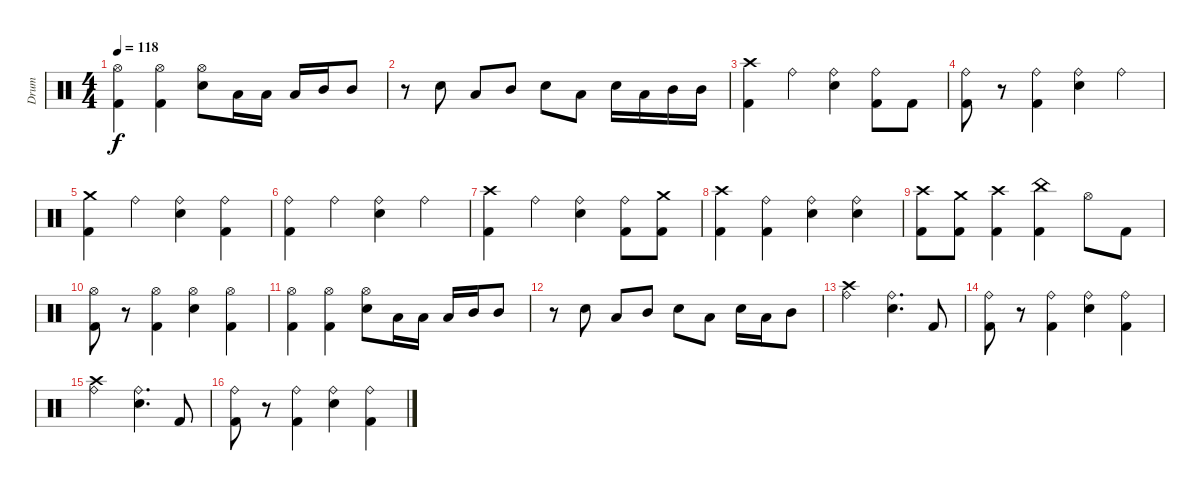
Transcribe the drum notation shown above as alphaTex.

\track ("Drum" "Drum") {instrument percussion}
\staff {score}
\articulation defaults
\ts (4 4)
\tempo 118
\clef neutral
\ks c
("Hi-Hat (open)" "Kick (hit) 2").4{dy f} ("Hi-Hat (open)" "Kick (hit) 2").4 ("Hi-Hat (open)" "Electric Snare (hit)").8 "Low Tom (hit)".16 "Low Tom (hit)".16 "Low Tom (hit)".16 "Mid Tom (hit)".16 "Mid Tom (hit)".8 |
r.8 "Electric Snare (hit)".8 "Low Tom (hit)".8 "Mid Tom (hit)".8 "Electric Snare (hit)".8 "Low Tom (hit)".8 "Electric Snare (hit)".16 "Low Tom (hit)".16 "Mid Tom (hit)".16 "Mid Tom (hit)".16 |
("Crash high (hit)" "Kick (hit) 2").4 "Ride (bell)".4 ("Ride (bell)" "Electric Snare (hit)").4 ("Ride (bell)" "Kick (hit) 2").8 "Kick (hit) 2".8 |
("Ride (bell)" "Kick (hit) 2").8 r.8 ("Ride (bell)" "Kick (hit) 2").4 ("Ride (bell)" "Electric Snare (hit)").4 "Ride (bell)".4 |
("Crash medium (hit)" "Kick (hit) 2").4 "Ride (bell)".4 ("Ride (bell)" "Electric Snare (hit)").4 ("Ride (bell)" "Kick (hit) 2").4 |
("Ride (bell)" "Kick (hit) 2").4 "Ride (bell)".4 ("Ride (bell)" "Electric Snare (hit)").4 "Ride (bell)".4 |
("Crash high (hit)" "Kick (hit) 2").4 "Ride (bell)".4 ("Ride (bell)" "Electric Snare (hit)").4 ("Ride (bell)" "Kick (hit) 2").8 ("Crash medium (hit)" "Kick (hit) 2").8 |
("Crash high (hit)" "Kick (hit) 2").4 ("Ride (bell)" "Kick (hit) 2").4 ("Ride (bell)" "Electric Snare (hit)").4 ("Ride (bell)" "Electric Snare (hit)").4 |
("Crash high (hit)" "Kick (hit) 2").8 ("Crash medium (hit)" "Kick (hit) 2").8 ("Crash high (hit)" "Kick (hit) 2").4 ("China (hit)" "Kick (hit) 2").4 "Hi-Hat (open)".8 "Kick (hit) 2".8 |
("Hi-Hat (open)" "Kick (hit) 2").8 r.8 ("Hi-Hat (open)" "Kick (hit) 2").4 ("Hi-Hat (open)" "Electric Snare (hit)").4 ("Hi-Hat (open)" "Kick (hit) 2").4 |
("Hi-Hat (open)" "Kick (hit) 2").4 ("Hi-Hat (open)" "Kick (hit) 2").4 ("Hi-Hat (open)" "Electric Snare (hit)").8 "Low Tom (hit)".16 "Low Tom (hit)".16 "Low Tom (hit)".16 "Mid Tom (hit)".16 "Mid Tom (hit)".8 |
r.8 "Electric Snare (hit)".8 "Low Tom (hit)".8 "Mid Tom (hit)".8 "Electric Snare (hit)".8 "Low Tom (hit)".8 "Electric Snare (hit)".16 "Low Tom (hit)".16 "Mid Tom (hit)".8 |
("Crash high (hit)" "Ride (bell)").2 ("Ride (bell)" "Electric Snare (hit)").4{d} "Kick (hit) 2".8 |
("Ride (bell)" "Kick (hit) 2").8 r.8 ("Ride (bell)" "Kick (hit) 2").4 ("Ride (bell)" "Electric Snare (hit)").4 ("Ride (bell)" "Kick (hit) 2").4 |
("Crash high (hit)" "Ride (bell)").2 ("Ride (bell)" "Electric Snare (hit)").4{d} "Kick (hit) 2".8 |
("Ride (bell)" "Kick (hit) 2").8 r.8 ("Ride (bell)" "Kick (hit) 2").4 ("Ride (bell)" "Electric Snare (hit)").4 ("Ride (bell)" "Kick (hit) 2").4
